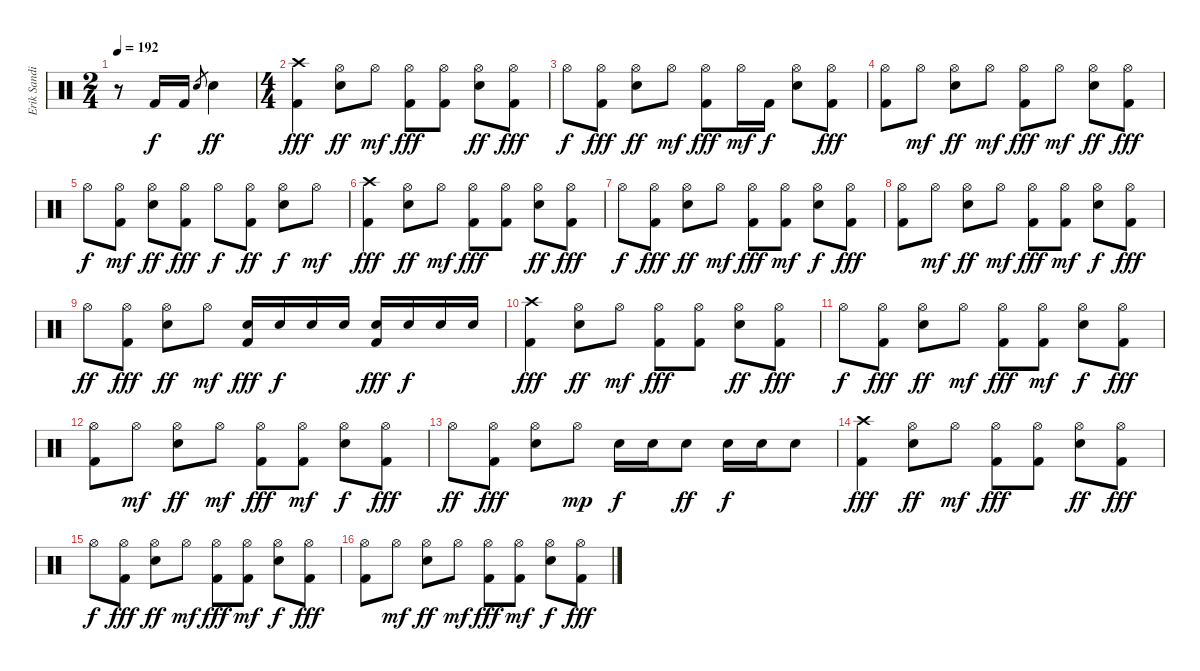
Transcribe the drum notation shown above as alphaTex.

\track ("Erik Sandin - Drums" "Erik Sandi") {instrument percussion}
\staff {score}
\articulation defaults
\ts (2 4)
\tempo 192
\tempo 169
\tempo 192
\clef neutral
\ks c
r.8{dy f} "Kick (hit) 2".16 "Kick (hit) 2".16 "Electric Snare (hit)".8{gr} "Electric Snare (hit)".4{dy ff} |
\ts (4 4)
("Crash high (hit)" "Kick (hit) 2").4{dy fff} ("Hi-Hat (open)" "Electric Snare (hit)").8{dy ff} "Hi-Hat (open)".8{dy mf} ("Hi-Hat (open)" "Kick (hit) 2").8{dy fff} ("Hi-Hat (open)" "Kick (hit) 2").8 ("Hi-Hat (open)" "Electric Snare (hit)").8{dy ff} ("Hi-Hat (open)" "Kick (hit) 2").8{dy fff} |
"Hi-Hat (open)".8{dy f} ("Hi-Hat (open)" "Kick (hit) 2").8{dy fff} ("Hi-Hat (open)" "Electric Snare (hit)").8{dy ff} "Hi-Hat (open)".8{dy mf} ("Hi-Hat (open)" "Kick (hit) 2").8{dy fff} "Hi-Hat (open)".16{dy mf} "Kick (hit) 2".16{dy f} ("Hi-Hat (open)" "Electric Snare (hit)").8 ("Hi-Hat (open)" "Kick (hit) 2").8{dy fff} |
("Hi-Hat (open)" "Kick (hit) 2").8 "Hi-Hat (open)".8{dy mf} ("Hi-Hat (open)" "Electric Snare (hit)").8{dy ff} "Hi-Hat (open)".8{dy mf} ("Hi-Hat (open)" "Kick (hit) 2").8{dy fff} "Hi-Hat (open)".8{dy mf} ("Hi-Hat (open)" "Electric Snare (hit)").8{dy ff} ("Hi-Hat (open)" "Kick (hit) 2").8{dy fff} |
"Hi-Hat (open)".8{dy f} ("Hi-Hat (open)" "Kick (hit) 2").8{dy mf} ("Hi-Hat (open)" "Electric Snare (hit)").8{dy ff} ("Hi-Hat (open)" "Kick (hit) 2").8{dy fff} "Hi-Hat (open)".8{dy f} ("Hi-Hat (open)" "Kick (hit) 2").8{dy ff} ("Hi-Hat (open)" "Electric Snare (hit)").8{dy f} "Hi-Hat (open)".8{dy mf} |
("Crash high (hit)" "Kick (hit) 2").4{dy fff} ("Hi-Hat (open)" "Electric Snare (hit)").8{dy ff} "Hi-Hat (open)".8{dy mf} ("Hi-Hat (open)" "Kick (hit) 2").8{dy fff} ("Hi-Hat (open)" "Kick (hit) 2").8 ("Hi-Hat (open)" "Electric Snare (hit)").8{dy ff} ("Hi-Hat (open)" "Kick (hit) 2").8{dy fff} |
"Hi-Hat (open)".8{dy f} ("Hi-Hat (open)" "Kick (hit) 2").8{dy fff} ("Hi-Hat (open)" "Electric Snare (hit)").8{dy ff} "Hi-Hat (open)".8{dy mf} ("Hi-Hat (open)" "Kick (hit) 2").8{dy fff} ("Hi-Hat (open)" "Kick (hit) 2").8{dy mf} ("Hi-Hat (open)" "Electric Snare (hit)").8{dy f} ("Hi-Hat (open)" "Kick (hit) 2").8{dy fff} |
("Hi-Hat (open)" "Kick (hit) 2").8 "Hi-Hat (open)".8{dy mf} ("Hi-Hat (open)" "Electric Snare (hit)").8{dy ff} "Hi-Hat (open)".8{dy mf} ("Hi-Hat (open)" "Kick (hit) 2").8{dy fff} ("Hi-Hat (open)" "Kick (hit) 2").8{dy mf} ("Hi-Hat (open)" "Electric Snare (hit)").8{dy f} ("Hi-Hat (open)" "Kick (hit) 2").8{dy fff} |
"Hi-Hat (open)".8{dy ff} ("Hi-Hat (open)" "Kick (hit) 2").8{dy fff} ("Hi-Hat (open)" "Electric Snare (hit)").8{dy ff} "Hi-Hat (open)".8{dy mf} ("Electric Snare (hit)" "Kick (hit) 2").16{dy fff} "Electric Snare (hit)".16{dy f} "Electric Snare (hit)".16 "Electric Snare (hit)".16 ("Electric Snare (hit)" "Kick (hit) 2").16{dy fff} "Electric Snare (hit)".16{dy f} "Electric Snare (hit)".16 "Electric Snare (hit)".16 |
("Crash high (hit)" "Kick (hit) 2").4{dy fff} ("Hi-Hat (open)" "Electric Snare (hit)").8{dy ff} "Hi-Hat (open)".8{dy mf} ("Hi-Hat (open)" "Kick (hit) 2").8{dy fff} ("Hi-Hat (open)" "Kick (hit) 2").8 ("Hi-Hat (open)" "Electric Snare (hit)").8{dy ff} ("Hi-Hat (open)" "Kick (hit) 2").8{dy fff} |
"Hi-Hat (open)".8{dy f} ("Hi-Hat (open)" "Kick (hit) 2").8{dy fff} ("Hi-Hat (open)" "Electric Snare (hit)").8{dy ff} "Hi-Hat (open)".8{dy mf} ("Hi-Hat (open)" "Kick (hit) 2").8{dy fff} ("Hi-Hat (open)" "Kick (hit) 2").8{dy mf} ("Hi-Hat (open)" "Electric Snare (hit)").8{dy f} ("Hi-Hat (open)" "Kick (hit) 2").8{dy fff} |
("Hi-Hat (open)" "Kick (hit) 2").8 "Hi-Hat (open)".8{dy mf} ("Hi-Hat (open)" "Electric Snare (hit)").8{dy ff} "Hi-Hat (open)".8{dy mf} ("Hi-Hat (open)" "Kick (hit) 2").8{dy fff} ("Hi-Hat (open)" "Kick (hit) 2").8{dy mf} ("Hi-Hat (open)" "Electric Snare (hit)").8{dy f} ("Hi-Hat (open)" "Kick (hit) 2").8{dy fff} |
"Hi-Hat (open)".8{dy ff} ("Hi-Hat (open)" "Kick (hit) 2").8{dy fff} ("Hi-Hat (open)" "Electric Snare (hit)").8 "Hi-Hat (open)".8{dy mp} "Electric Snare (hit)".16{dy f} "Electric Snare (hit)".16 "Electric Snare (hit)".8{dy ff} "Electric Snare (hit)".16{dy f} "Electric Snare (hit)".16 "Electric Snare (hit)".8 |
("Crash high (hit)" "Kick (hit) 2").4{dy fff} ("Hi-Hat (open)" "Electric Snare (hit)").8{dy ff} "Hi-Hat (open)".8{dy mf} ("Hi-Hat (open)" "Kick (hit) 2").8{dy fff} ("Hi-Hat (open)" "Kick (hit) 2").8 ("Hi-Hat (open)" "Electric Snare (hit)").8{dy ff} ("Hi-Hat (open)" "Kick (hit) 2").8{dy fff} |
"Hi-Hat (open)".8{dy f} ("Hi-Hat (open)" "Kick (hit) 2").8{dy fff} ("Hi-Hat (open)" "Electric Snare (hit)").8{dy ff} "Hi-Hat (open)".8{dy mf} ("Hi-Hat (open)" "Kick (hit) 2").8{dy fff} ("Hi-Hat (open)" "Kick (hit) 2").8{dy mf} ("Hi-Hat (open)" "Electric Snare (hit)").8{dy f} ("Hi-Hat (open)" "Kick (hit) 2").8{dy fff} |
("Hi-Hat (open)" "Kick (hit) 2").8 "Hi-Hat (open)".8{dy mf} ("Hi-Hat (open)" "Electric Snare (hit)").8{dy ff} "Hi-Hat (open)".8{dy mf} ("Hi-Hat (open)" "Kick (hit) 2").8{dy fff} ("Hi-Hat (open)" "Kick (hit) 2").8{dy mf} ("Hi-Hat (open)" "Electric Snare (hit)").8{dy f} ("Hi-Hat (open)" "Kick (hit) 2").8{dy fff}
